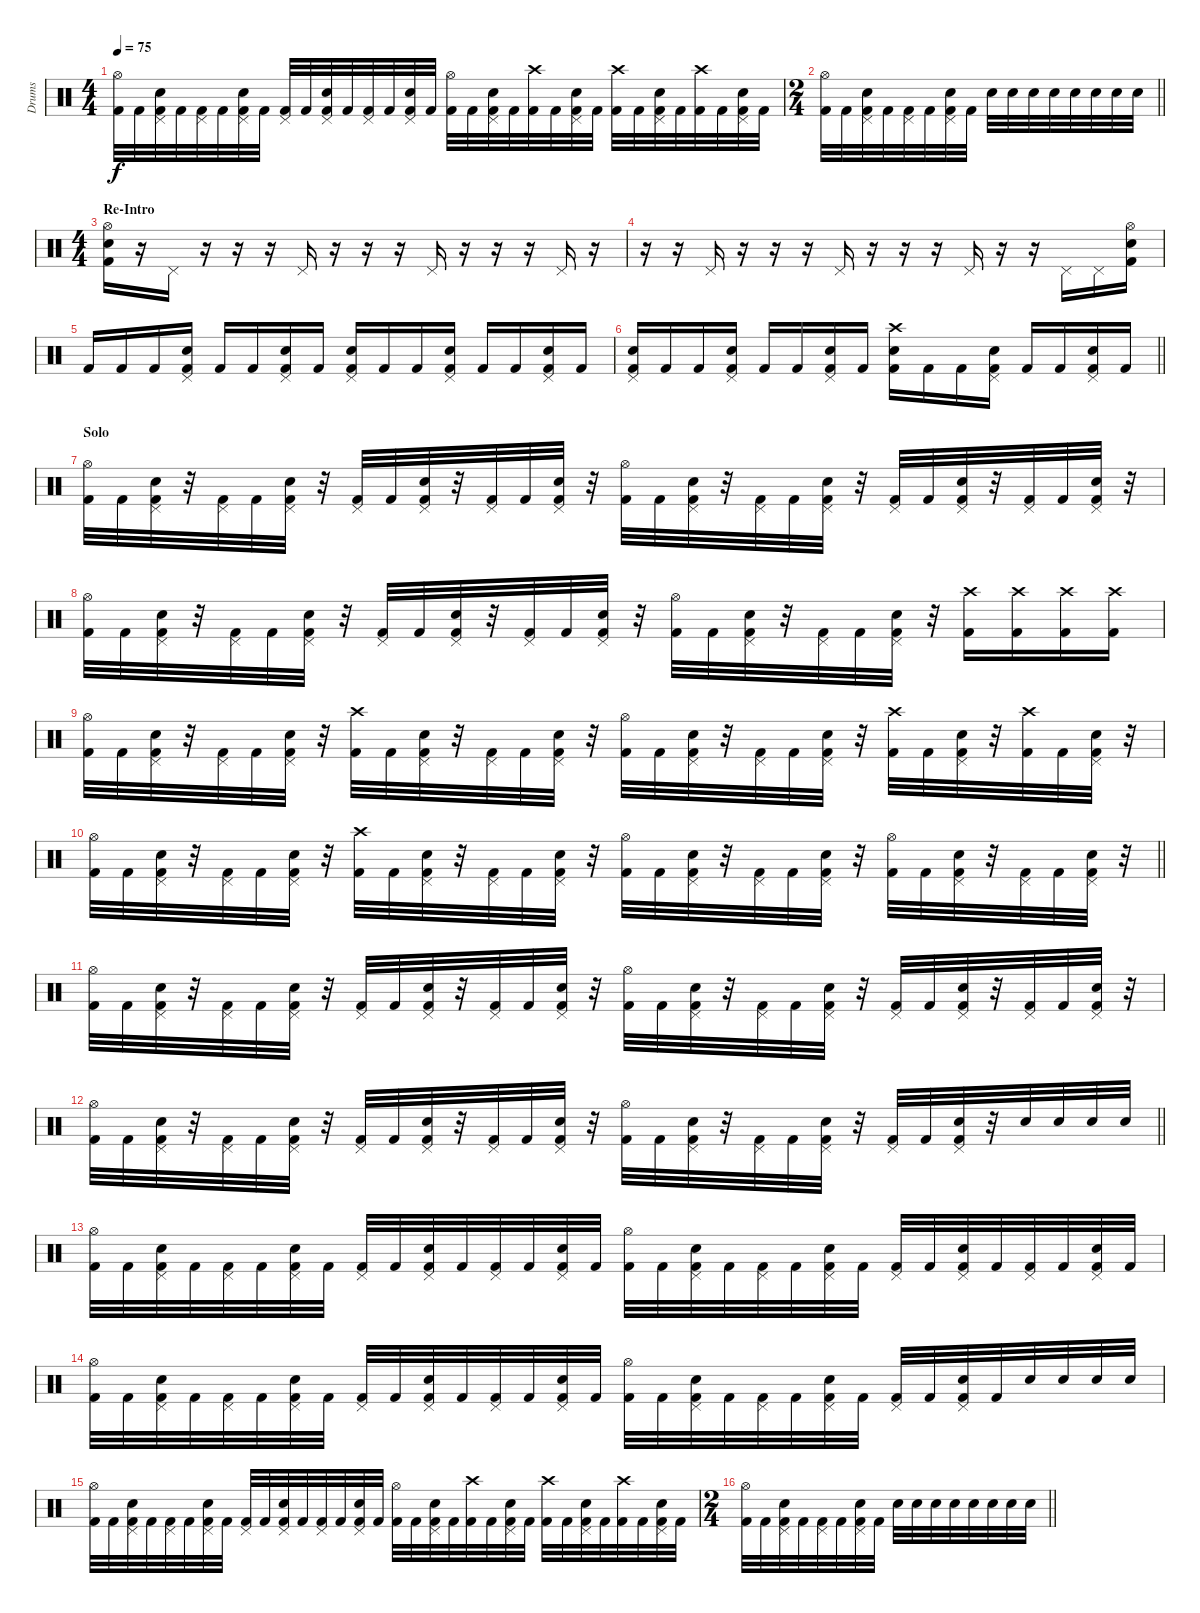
\track ("Drums" "Drums") {instrument percussion}
\staff {score}
\articulation defaults
\ts (4 4)
\tempo 75
\clef neutral
\ks c
("Hi-Hat (open)" "Kick (hit) 2").32{dy f} "Kick (hit) 2".32 ("Pedal Hi-Hat (hit)" "Snare (hit) 2" "Kick (hit) 2").32 "Kick (hit) 2".32 ("Pedal Hi-Hat (hit)" "Kick (hit) 2").32 "Kick (hit) 2".32 ("Pedal Hi-Hat (hit)" "Snare (hit) 2" "Kick (hit) 2").32 "Kick (hit) 2".32 ("Pedal Hi-Hat (hit)" "Kick (hit) 2").32 "Kick (hit) 2".32 ("Pedal Hi-Hat (hit)" "Snare (hit) 2" "Kick (hit) 2").32 "Kick (hit) 2".32 ("Pedal Hi-Hat (hit)" "Kick (hit) 2").32 "Kick (hit) 2".32 ("Pedal Hi-Hat (hit)" "Snare (hit) 2" "Kick (hit) 2").32 "Kick (hit) 2".32 ("Hi-Hat (open)" "Kick (hit) 2").32 "Kick (hit) 2".32 ("Pedal Hi-Hat (hit)" "Snare (hit) 2" "Kick (hit) 2").32 "Kick (hit) 2".32 ("Crash high (hit)" "Kick (hit) 2").32 "Kick (hit) 2".32 ("Pedal Hi-Hat (hit)" "Snare (hit) 2" "Kick (hit) 2").32 "Kick (hit) 2".32 ("Crash high (hit)" "Kick (hit) 2").32 "Kick (hit) 2".32 ("Pedal Hi-Hat (hit)" "Snare (hit) 2" "Kick (hit) 2").32 "Kick (hit) 2".32 ("Crash high (hit)" "Kick (hit) 2").32 "Kick (hit) 2".32 ("Pedal Hi-Hat (hit)" "Snare (hit) 2" "Kick (hit) 2").32 "Kick (hit) 2".32 |
\ts (2 4)
\barLineRight lightlight
("Hi-Hat (open)" "Kick (hit) 2").32 "Kick (hit) 2".32 ("Pedal Hi-Hat (hit)" "Snare (hit) 2" "Kick (hit) 2").32 "Kick (hit) 2".32 ("Pedal Hi-Hat (hit)" "Kick (hit) 2").32 "Kick (hit) 2".32 ("Pedal Hi-Hat (hit)" "Snare (hit) 2" "Kick (hit) 2").32 "Kick (hit) 2".32 "Snare (hit) 2".32 "Snare (hit) 2".32 "Snare (hit) 2".32 "Snare (hit) 2".32 "Snare (hit) 2".32 "Snare (hit) 2".32 "Snare (hit) 2".32 "Snare (hit) 2".32 |
\ts (4 4)
\section ("" "Re-Intro")
("Hi-Hat (open)" "Snare (hit) 2" "Kick (hit) 2").16 r.16 "Pedal Hi-Hat (hit)".16 r.16 r.16 r.16 "Pedal Hi-Hat (hit)".16 r.16 r.16 r.16 "Pedal Hi-Hat (hit)".16 r.16 r.16 r.16 "Pedal Hi-Hat (hit)".16 r.16 |
r.16 r.16 "Pedal Hi-Hat (hit)".16 r.16 r.16 r.16 "Pedal Hi-Hat (hit)".16 r.16 r.16 r.16 "Pedal Hi-Hat (hit)".16 r.16 r.16 "Pedal Hi-Hat (hit)".16 "Pedal Hi-Hat (hit)".16 ("Hi-Hat (open)" "Snare (hit) 2" "Kick (hit) 2").16 |
"Kick (hit) 2".16 "Kick (hit) 2".16 "Kick (hit) 2".16 ("Pedal Hi-Hat (hit)" "Snare (hit) 2" "Kick (hit) 2").16 "Kick (hit) 2".16 "Kick (hit) 2".16 ("Pedal Hi-Hat (hit)" "Snare (hit) 2" "Kick (hit) 2").16 "Kick (hit) 2".16 ("Pedal Hi-Hat (hit)" "Snare (hit) 2" "Kick (hit) 2").16 "Kick (hit) 2".16 "Kick (hit) 2".16 ("Pedal Hi-Hat (hit)" "Snare (hit) 2" "Kick (hit) 2").16 "Kick (hit) 2".16 "Kick (hit) 2".16 ("Pedal Hi-Hat (hit)" "Snare (hit) 2" "Kick (hit) 2").16 "Kick (hit) 2".16 |
\barLineRight lightlight
("Pedal Hi-Hat (hit)" "Snare (hit) 2" "Kick (hit) 2").16 "Kick (hit) 2".16 "Kick (hit) 2".16 ("Pedal Hi-Hat (hit)" "Snare (hit) 2" "Kick (hit) 2").16 "Kick (hit) 2".16 "Kick (hit) 2".16 ("Pedal Hi-Hat (hit)" "Snare (hit) 2" "Kick (hit) 2").16 "Kick (hit) 2".16 ("Crash high (hit)" "Snare (hit) 2" "Kick (hit) 2").16 "Kick (hit) 2".16 "Kick (hit) 2".16 ("Pedal Hi-Hat (hit)" "Snare (hit) 2" "Kick (hit) 2").16 "Kick (hit) 2".16 "Kick (hit) 2".16 ("Pedal Hi-Hat (hit)" "Snare (hit) 2" "Kick (hit) 2").16 "Kick (hit) 2".16 |
\section ("" "Solo")
("Hi-Hat (open)" "Kick (hit) 2").32 "Kick (hit) 2".32 ("Pedal Hi-Hat (hit)" "Snare (hit) 2" "Kick (hit) 2").32 r.32 ("Pedal Hi-Hat (hit)" "Kick (hit) 2").32 "Kick (hit) 2".32 ("Pedal Hi-Hat (hit)" "Snare (hit) 2" "Kick (hit) 2").32 r.32 ("Pedal Hi-Hat (hit)" "Kick (hit) 2").32 "Kick (hit) 2".32 ("Pedal Hi-Hat (hit)" "Snare (hit) 2" "Kick (hit) 2").32 r.32 ("Pedal Hi-Hat (hit)" "Kick (hit) 2").32 "Kick (hit) 2".32 ("Pedal Hi-Hat (hit)" "Snare (hit) 2" "Kick (hit) 2").32 r.32 ("Hi-Hat (open)" "Kick (hit) 2").32 "Kick (hit) 2".32 ("Pedal Hi-Hat (hit)" "Snare (hit) 2" "Kick (hit) 2").32 r.32 ("Pedal Hi-Hat (hit)" "Kick (hit) 2").32 "Kick (hit) 2".32 ("Pedal Hi-Hat (hit)" "Snare (hit) 2" "Kick (hit) 2").32 r.32 ("Pedal Hi-Hat (hit)" "Kick (hit) 2").32 "Kick (hit) 2".32 ("Pedal Hi-Hat (hit)" "Snare (hit) 2" "Kick (hit) 2").32 r.32 ("Pedal Hi-Hat (hit)" "Kick (hit) 2").32 "Kick (hit) 2".32 ("Pedal Hi-Hat (hit)" "Snare (hit) 2" "Kick (hit) 2").32 r.32 |
("Hi-Hat (open)" "Kick (hit) 2").32 "Kick (hit) 2".32 ("Pedal Hi-Hat (hit)" "Snare (hit) 2" "Kick (hit) 2").32 r.32 ("Pedal Hi-Hat (hit)" "Kick (hit) 2").32 "Kick (hit) 2".32 ("Pedal Hi-Hat (hit)" "Snare (hit) 2" "Kick (hit) 2").32 r.32 ("Pedal Hi-Hat (hit)" "Kick (hit) 2").32 "Kick (hit) 2".32 ("Pedal Hi-Hat (hit)" "Snare (hit) 2" "Kick (hit) 2").32 r.32 ("Pedal Hi-Hat (hit)" "Kick (hit) 2").32 "Kick (hit) 2".32 ("Pedal Hi-Hat (hit)" "Snare (hit) 2" "Kick (hit) 2").32 r.32 ("Hi-Hat (open)" "Kick (hit) 2").32 "Kick (hit) 2".32 ("Pedal Hi-Hat (hit)" "Snare (hit) 2" "Kick (hit) 2").32 r.32 ("Pedal Hi-Hat (hit)" "Kick (hit) 2").32 "Kick (hit) 2".32 ("Pedal Hi-Hat (hit)" "Snare (hit) 2" "Kick (hit) 2").32 r.32 ("Crash high (hit)" "Kick (hit) 2").16 ("Crash high (hit)" "Kick (hit) 2").16 ("Crash high (hit)" "Kick (hit) 2").16 ("Crash high (hit)" "Kick (hit) 2").16 |
("Hi-Hat (open)" "Kick (hit) 2").32 "Kick (hit) 2".32 ("Pedal Hi-Hat (hit)" "Snare (hit) 2" "Kick (hit) 2").32 r.32 ("Pedal Hi-Hat (hit)" "Kick (hit) 2").32 "Kick (hit) 2".32 ("Pedal Hi-Hat (hit)" "Snare (hit) 2" "Kick (hit) 2").32 r.32 ("Crash high (hit)" "Kick (hit) 2").32 "Kick (hit) 2".32 ("Pedal Hi-Hat (hit)" "Snare (hit) 2" "Kick (hit) 2").32 r.32 ("Pedal Hi-Hat (hit)" "Kick (hit) 2").32 "Kick (hit) 2".32 ("Pedal Hi-Hat (hit)" "Snare (hit) 2" "Kick (hit) 2").32 r.32 ("Hi-Hat (open)" "Kick (hit) 2").32 "Kick (hit) 2".32 ("Pedal Hi-Hat (hit)" "Snare (hit) 2" "Kick (hit) 2").32 r.32 ("Pedal Hi-Hat (hit)" "Kick (hit) 2").32 "Kick (hit) 2".32 ("Pedal Hi-Hat (hit)" "Snare (hit) 2" "Kick (hit) 2").32 r.32 ("Crash high (hit)" "Kick (hit) 2").32 "Kick (hit) 2".32 ("Pedal Hi-Hat (hit)" "Snare (hit) 2" "Kick (hit) 2").32 r.32 ("Crash high (hit)" "Kick (hit) 2").32 "Kick (hit) 2".32 ("Pedal Hi-Hat (hit)" "Snare (hit) 2" "Kick (hit) 2").32 r.32 |
\barLineRight lightlight
("Hi-Hat (open)" "Kick (hit) 2").32 "Kick (hit) 2".32 ("Pedal Hi-Hat (hit)" "Snare (hit) 2" "Kick (hit) 2").32 r.32 ("Pedal Hi-Hat (hit)" "Kick (hit) 2").32 "Kick (hit) 2".32 ("Pedal Hi-Hat (hit)" "Snare (hit) 2" "Kick (hit) 2").32 r.32 ("Crash high (hit)" "Kick (hit) 2").32 "Kick (hit) 2".32 ("Pedal Hi-Hat (hit)" "Snare (hit) 2" "Kick (hit) 2").32 r.32 ("Pedal Hi-Hat (hit)" "Kick (hit) 2").32 "Kick (hit) 2".32 ("Pedal Hi-Hat (hit)" "Snare (hit) 2" "Kick (hit) 2").32 r.32 ("Hi-Hat (open)" "Kick (hit) 2").32 "Kick (hit) 2".32 ("Pedal Hi-Hat (hit)" "Snare (hit) 2" "Kick (hit) 2").32 r.32 ("Pedal Hi-Hat (hit)" "Kick (hit) 2").32 "Kick (hit) 2".32 ("Pedal Hi-Hat (hit)" "Snare (hit) 2" "Kick (hit) 2").32 r.32 ("Hi-Hat (open)" "Kick (hit) 2").32 "Kick (hit) 2".32 ("Pedal Hi-Hat (hit)" "Snare (hit) 2" "Kick (hit) 2").32 r.32 ("Pedal Hi-Hat (hit)" "Kick (hit) 2").32 "Kick (hit) 2".32 ("Pedal Hi-Hat (hit)" "Snare (hit) 2" "Kick (hit) 2").32 r.32 |
("Hi-Hat (open)" "Kick (hit) 2").32 "Kick (hit) 2".32 ("Pedal Hi-Hat (hit)" "Snare (hit) 2" "Kick (hit) 2").32 r.32 ("Pedal Hi-Hat (hit)" "Kick (hit) 2").32 "Kick (hit) 2".32 ("Pedal Hi-Hat (hit)" "Snare (hit) 2" "Kick (hit) 2").32 r.32 ("Pedal Hi-Hat (hit)" "Kick (hit) 2").32 "Kick (hit) 2".32 ("Pedal Hi-Hat (hit)" "Snare (hit) 2" "Kick (hit) 2").32 r.32 ("Pedal Hi-Hat (hit)" "Kick (hit) 2").32 "Kick (hit) 2".32 ("Pedal Hi-Hat (hit)" "Snare (hit) 2" "Kick (hit) 2").32 r.32 ("Hi-Hat (open)" "Kick (hit) 2").32 "Kick (hit) 2".32 ("Pedal Hi-Hat (hit)" "Snare (hit) 2" "Kick (hit) 2").32 r.32 ("Pedal Hi-Hat (hit)" "Kick (hit) 2").32 "Kick (hit) 2".32 ("Pedal Hi-Hat (hit)" "Snare (hit) 2" "Kick (hit) 2").32 r.32 ("Pedal Hi-Hat (hit)" "Kick (hit) 2").32 "Kick (hit) 2".32 ("Pedal Hi-Hat (hit)" "Snare (hit) 2" "Kick (hit) 2").32 r.32 ("Pedal Hi-Hat (hit)" "Kick (hit) 2").32 "Kick (hit) 2".32 ("Pedal Hi-Hat (hit)" "Snare (hit) 2" "Kick (hit) 2").32 r.32 |
\barLineRight lightlight
("Hi-Hat (open)" "Kick (hit) 2").32 "Kick (hit) 2".32 ("Pedal Hi-Hat (hit)" "Snare (hit) 2" "Kick (hit) 2").32 r.32 ("Pedal Hi-Hat (hit)" "Kick (hit) 2").32 "Kick (hit) 2".32 ("Pedal Hi-Hat (hit)" "Snare (hit) 2" "Kick (hit) 2").32 r.32 ("Pedal Hi-Hat (hit)" "Kick (hit) 2").32 "Kick (hit) 2".32 ("Pedal Hi-Hat (hit)" "Snare (hit) 2" "Kick (hit) 2").32 r.32 ("Pedal Hi-Hat (hit)" "Kick (hit) 2").32 "Kick (hit) 2".32 ("Pedal Hi-Hat (hit)" "Snare (hit) 2" "Kick (hit) 2").32 r.32 ("Hi-Hat (open)" "Kick (hit) 2").32 "Kick (hit) 2".32 ("Pedal Hi-Hat (hit)" "Snare (hit) 2" "Kick (hit) 2").32 r.32 ("Pedal Hi-Hat (hit)" "Kick (hit) 2").32 "Kick (hit) 2".32 ("Pedal Hi-Hat (hit)" "Snare (hit) 2" "Kick (hit) 2").32 r.32 ("Pedal Hi-Hat (hit)" "Kick (hit) 2").32 "Kick (hit) 2".32 ("Pedal Hi-Hat (hit)" "Snare (hit) 2" "Kick (hit) 2").32 r.32 "Snare (hit) 2".32 "Snare (hit) 2".32 "Snare (hit) 2".32 "Snare (hit) 2".32 |
("Hi-Hat (open)" "Kick (hit) 2").32 "Kick (hit) 2".32 ("Pedal Hi-Hat (hit)" "Snare (hit) 2" "Kick (hit) 2").32 "Kick (hit) 2".32 ("Pedal Hi-Hat (hit)" "Kick (hit) 2").32 "Kick (hit) 2".32 ("Pedal Hi-Hat (hit)" "Snare (hit) 2" "Kick (hit) 2").32 "Kick (hit) 2".32 ("Pedal Hi-Hat (hit)" "Kick (hit) 2").32 "Kick (hit) 2".32 ("Pedal Hi-Hat (hit)" "Snare (hit) 2" "Kick (hit) 2").32 "Kick (hit) 2".32 ("Pedal Hi-Hat (hit)" "Kick (hit) 2").32 "Kick (hit) 2".32 ("Pedal Hi-Hat (hit)" "Snare (hit) 2" "Kick (hit) 2").32 "Kick (hit) 2".32 ("Hi-Hat (open)" "Kick (hit) 2").32 "Kick (hit) 2".32 ("Pedal Hi-Hat (hit)" "Snare (hit) 2" "Kick (hit) 2").32 "Kick (hit) 2".32 ("Pedal Hi-Hat (hit)" "Kick (hit) 2").32 "Kick (hit) 2".32 ("Pedal Hi-Hat (hit)" "Snare (hit) 2" "Kick (hit) 2").32 "Kick (hit) 2".32 ("Pedal Hi-Hat (hit)" "Kick (hit) 2").32 "Kick (hit) 2".32 ("Pedal Hi-Hat (hit)" "Snare (hit) 2" "Kick (hit) 2").32 "Kick (hit) 2".32 ("Pedal Hi-Hat (hit)" "Kick (hit) 2").32 "Kick (hit) 2".32 ("Pedal Hi-Hat (hit)" "Snare (hit) 2" "Kick (hit) 2").32 "Kick (hit) 2".32 |
("Hi-Hat (open)" "Kick (hit) 2").32 "Kick (hit) 2".32 ("Pedal Hi-Hat (hit)" "Snare (hit) 2" "Kick (hit) 2").32 "Kick (hit) 2".32 ("Pedal Hi-Hat (hit)" "Kick (hit) 2").32 "Kick (hit) 2".32 ("Pedal Hi-Hat (hit)" "Snare (hit) 2" "Kick (hit) 2").32 "Kick (hit) 2".32 ("Pedal Hi-Hat (hit)" "Kick (hit) 2").32 "Kick (hit) 2".32 ("Pedal Hi-Hat (hit)" "Snare (hit) 2" "Kick (hit) 2").32 "Kick (hit) 2".32 ("Pedal Hi-Hat (hit)" "Kick (hit) 2").32 "Kick (hit) 2".32 ("Pedal Hi-Hat (hit)" "Snare (hit) 2" "Kick (hit) 2").32 "Kick (hit) 2".32 ("Hi-Hat (open)" "Kick (hit) 2").32 "Kick (hit) 2".32 ("Pedal Hi-Hat (hit)" "Snare (hit) 2" "Kick (hit) 2").32 "Kick (hit) 2".32 ("Pedal Hi-Hat (hit)" "Kick (hit) 2").32 "Kick (hit) 2".32 ("Pedal Hi-Hat (hit)" "Snare (hit) 2" "Kick (hit) 2").32 "Kick (hit) 2".32 ("Pedal Hi-Hat (hit)" "Kick (hit) 2").32 "Kick (hit) 2".32 ("Pedal Hi-Hat (hit)" "Snare (hit) 2" "Kick (hit) 2").32 "Kick (hit) 2".32 "Snare (hit) 2".32 "Snare (hit) 2".32 "Snare (hit) 2".32 "Snare (hit) 2".32 |
("Hi-Hat (open)" "Kick (hit) 2").32 "Kick (hit) 2".32 ("Pedal Hi-Hat (hit)" "Snare (hit) 2" "Kick (hit) 2").32 "Kick (hit) 2".32 ("Pedal Hi-Hat (hit)" "Kick (hit) 2").32 "Kick (hit) 2".32 ("Pedal Hi-Hat (hit)" "Snare (hit) 2" "Kick (hit) 2").32 "Kick (hit) 2".32 ("Pedal Hi-Hat (hit)" "Kick (hit) 2").32 "Kick (hit) 2".32 ("Pedal Hi-Hat (hit)" "Snare (hit) 2" "Kick (hit) 2").32 "Kick (hit) 2".32 ("Pedal Hi-Hat (hit)" "Kick (hit) 2").32 "Kick (hit) 2".32 ("Pedal Hi-Hat (hit)" "Snare (hit) 2" "Kick (hit) 2").32 "Kick (hit) 2".32 ("Hi-Hat (open)" "Kick (hit) 2").32 "Kick (hit) 2".32 ("Pedal Hi-Hat (hit)" "Snare (hit) 2" "Kick (hit) 2").32 "Kick (hit) 2".32 ("Crash high (hit)" "Kick (hit) 2").32 "Kick (hit) 2".32 ("Pedal Hi-Hat (hit)" "Snare (hit) 2" "Kick (hit) 2").32 "Kick (hit) 2".32 ("Crash high (hit)" "Kick (hit) 2").32 "Kick (hit) 2".32 ("Pedal Hi-Hat (hit)" "Snare (hit) 2" "Kick (hit) 2").32 "Kick (hit) 2".32 ("Crash high (hit)" "Kick (hit) 2").32 "Kick (hit) 2".32 ("Pedal Hi-Hat (hit)" "Snare (hit) 2" "Kick (hit) 2").32 "Kick (hit) 2".32 |
\ts (2 4)
\barLineRight lightlight
("Hi-Hat (open)" "Kick (hit) 2").32 "Kick (hit) 2".32 ("Pedal Hi-Hat (hit)" "Snare (hit) 2" "Kick (hit) 2").32 "Kick (hit) 2".32 ("Pedal Hi-Hat (hit)" "Kick (hit) 2").32 "Kick (hit) 2".32 ("Pedal Hi-Hat (hit)" "Snare (hit) 2" "Kick (hit) 2").32 "Kick (hit) 2".32 "Snare (hit) 2".32 "Snare (hit) 2".32 "Snare (hit) 2".32 "Snare (hit) 2".32 "Snare (hit) 2".32 "Snare (hit) 2".32 "Snare (hit) 2".32 "Snare (hit) 2".32
